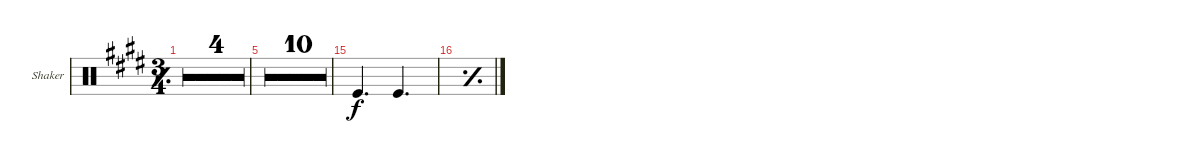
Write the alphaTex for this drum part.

\defaultSystemsLayout 4
\bracketExtendMode groupsimilarinstruments
\firstSystemTrackNameOrientation horizontal
\otherSystemsTrackNameOrientation horizontal
\track ("Shaker 2" "Shaker") {multiBarRest instrument percussion}
\staff {score}
\articulation defaults
\ts (3 4)
\tempo
150.035
\accidentals auto
\clef neutral
\ottava regular
\simile simple
\ks e
|
|
|
\simile none
r.2{d} |
\tempo
165.176 r.2{d} |
r.2{d} |
r.2{d} |
r.2{d} |
r.2{d} |
r.2{d} |
r.2{d} |
r.2{d} |
r.2{d} |
r.2{d} |
"Kick (hit)".4{d} "Kick (hit)".4{d} |
\simile simple
